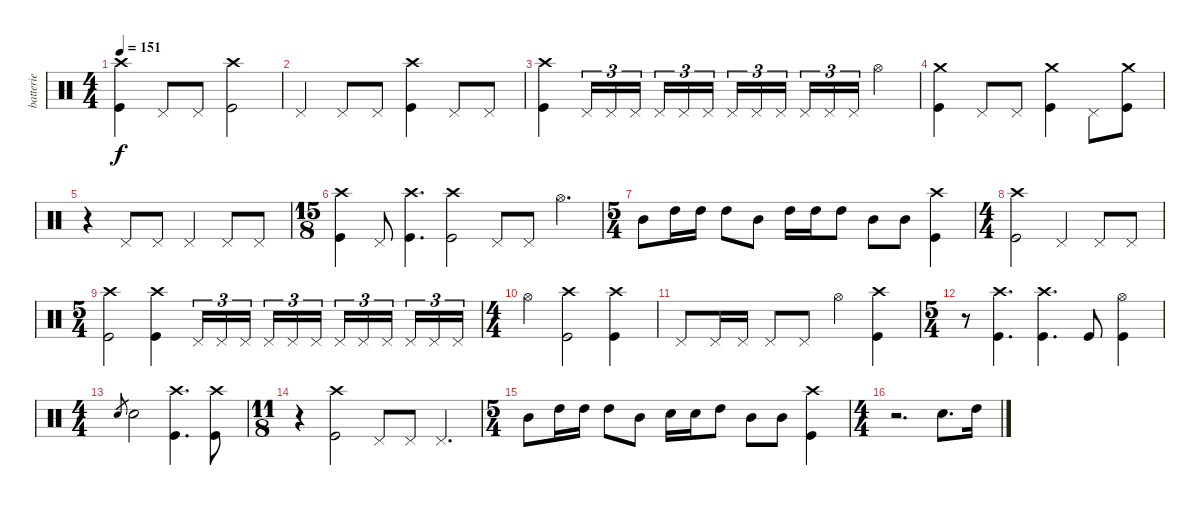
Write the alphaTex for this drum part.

\track ("batterie" "batterie") {instrument percussion}
\staff {score}
\articulation defaults
\ts (4 4)
\tempo 151
\clef neutral
\ks c
("Crash high (hit)" "Kick (hit)").4{dy f} "Pedal Hi-Hat (hit)".8 "Pedal Hi-Hat (hit)".8 ("Crash high (hit)" "Kick (hit)").2 |
"Pedal Hi-Hat (hit)".4 "Pedal Hi-Hat (hit)".8 "Pedal Hi-Hat (hit)".8 ("Crash high (hit)" "Kick (hit)").4 "Pedal Hi-Hat (hit)".8 "Pedal Hi-Hat (hit)".8 |
("Crash high (hit)" "Kick (hit)").4 "Pedal Hi-Hat (hit)".16{tu (3 2)} "Pedal Hi-Hat (hit)".16{tu (3 2)} "Pedal Hi-Hat (hit)".16{tu (3 2)} "Pedal Hi-Hat (hit)".16{tu (3 2)} "Pedal Hi-Hat (hit)".16{tu (3 2)} "Pedal Hi-Hat (hit)".16{tu (3 2)} "Pedal Hi-Hat (hit)".16{tu (3 2)} "Pedal Hi-Hat (hit)".16{tu (3 2)} "Pedal Hi-Hat (hit)".16{tu (3 2)} "Pedal Hi-Hat (hit)".16{tu (3 2)} "Pedal Hi-Hat (hit)".16{tu (3 2)} "Pedal Hi-Hat (hit)".16{tu (3 2)} "Hi-Hat (open)".4 |
("Crash medium (hit)" "Kick (hit)").4 "Pedal Hi-Hat (hit)".8 "Pedal Hi-Hat (hit)".8 ("Crash medium (hit)" "Kick (hit)").4 "Pedal Hi-Hat (hit)".8 ("Crash medium (hit)" "Kick (hit)").8 |
r.4 "Pedal Hi-Hat (hit)".8 "Pedal Hi-Hat (hit)".8 "Pedal Hi-Hat (hit)".4 "Pedal Hi-Hat (hit)".8 "Pedal Hi-Hat (hit)".8 |
\ts (15 8)
("Crash high (hit)" "Kick (hit)").4 "Pedal Hi-Hat (hit)".8 ("Crash high (hit)" "Kick (hit)").4{d} ("Crash high (hit)" "Kick (hit)").2 "Pedal Hi-Hat (hit)".8 "Pedal Hi-Hat (hit)".8 "Hi-Hat (open)".4{d} |
\ts (5 4)
"Mid Tom (hit)".8 "High Tom (hit)".16 "High Tom (hit)".16 "High Tom (hit)".8 "Mid Tom (hit)".8 "High Tom (hit)".16 "High Tom (hit)".16 "High Tom (hit)".8 "Mid Tom (hit)".8 "Mid Tom (hit)".8 ("Crash high (hit)" "Kick (hit)").4 |
\ts (4 4)
("Crash high (hit)" "Kick (hit)").2 "Pedal Hi-Hat (hit)".4 "Pedal Hi-Hat (hit)".8 "Pedal Hi-Hat (hit)".8 |
\ts (5 4)
("Crash high (hit)" "Kick (hit)").2 ("Crash high (hit)" "Kick (hit)").4 "Pedal Hi-Hat (hit)".16{tu (3 2)} "Pedal Hi-Hat (hit)".16{tu (3 2)} "Pedal Hi-Hat (hit)".16{tu (3 2)} "Pedal Hi-Hat (hit)".16{tu (3 2)} "Pedal Hi-Hat (hit)".16{tu (3 2)} "Pedal Hi-Hat (hit)".16{tu (3 2)} "Pedal Hi-Hat (hit)".16{tu (3 2)} "Pedal Hi-Hat (hit)".16{tu (3 2)} "Pedal Hi-Hat (hit)".16{tu (3 2)} "Pedal Hi-Hat (hit)".16{tu (3 2)} "Pedal Hi-Hat (hit)".16{tu (3 2)} "Pedal Hi-Hat (hit)".16{tu (3 2)} |
\ts (4 4)
"Hi-Hat (open)".4 ("Crash high (hit)" "Kick (hit)").2 ("Crash high (hit)" "Kick (hit)").4 |
"Pedal Hi-Hat (hit)".8 "Pedal Hi-Hat (hit)".16 "Pedal Hi-Hat (hit)".16 "Pedal Hi-Hat (hit)".8 "Pedal Hi-Hat (hit)".8 "Hi-Hat (open)".4 ("Crash high (hit)" "Kick (hit)").4 |
\ts (5 4)
r.8 ("Crash high (hit)" "Kick (hit)").4{d} ("Crash high (hit)" "Kick (hit)").4{d} "Kick (hit)".8 ("Hi-Hat (open)" "Kick (hit)").4 |
\ts (4 4)
"Snare (hit) 2".8{gr} "Snare (hit) 2".2 ("Crash high (hit)" "Kick (hit)").4{d} ("Crash high (hit)" "Kick (hit)").8 |
\ts (11 8)
r.4 ("Crash high (hit)" "Kick (hit)").2 "Pedal Hi-Hat (hit)".8 "Pedal Hi-Hat (hit)".8 "Pedal Hi-Hat (hit)".4{d} |
\ts (5 4)
"Mid Tom (hit)".8 "High Tom (hit)".16 "High Tom (hit)".16 "High Tom (hit)".8 "Mid Tom (hit)".8 "Snare (hit) 2".16 "Snare (hit) 2".16 "High Tom (hit)".8 "Mid Tom (hit)".8 "Mid Tom (hit)".8 ("Crash high (hit)" "Kick (hit)").4 |
\ts (4 4)
r.2{d} "Snare (hit) 2".8{d} "High Tom (hit)".16
